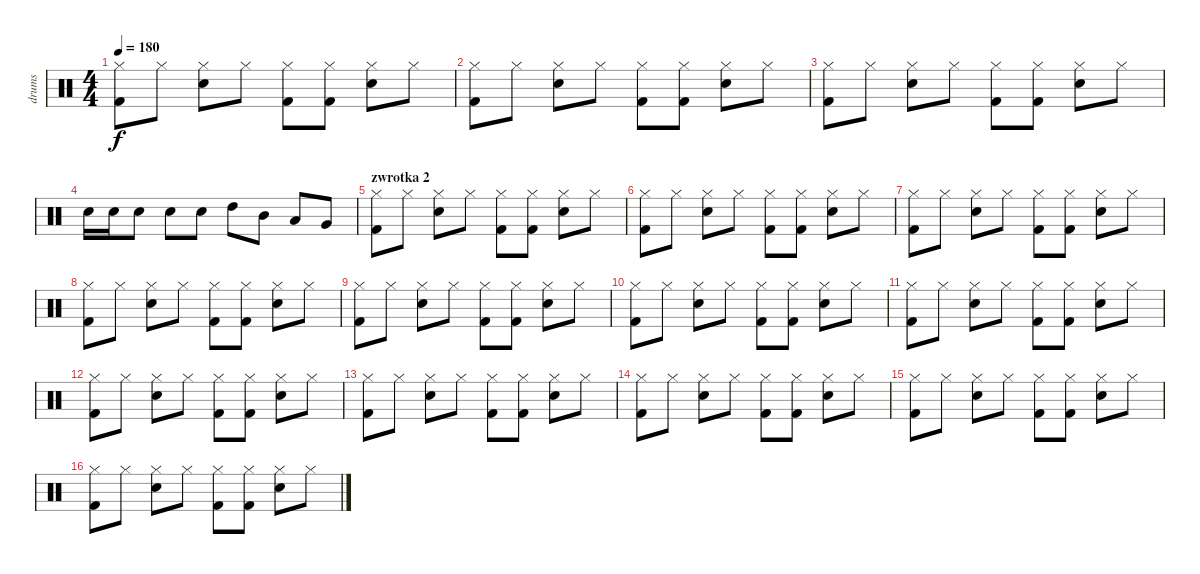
\track ("drums" "drums") {instrument percussion}
\staff {score}
\articulation defaults
\ts (4 4)
\tempo 180
\clef neutral
\ks c
("Hi-Hat (closed)" "Kick (hit) 2").8{dy f} "Hi-Hat (closed)".8 ("Hi-Hat (closed)" "Snare (hit) 2").8 "Hi-Hat (closed)".8 ("Hi-Hat (closed)" "Kick (hit) 2").8 ("Hi-Hat (closed)" "Kick (hit) 2").8 ("Hi-Hat (closed)" "Snare (hit) 2").8 "Hi-Hat (closed)".8 |
("Hi-Hat (closed)" "Kick (hit) 2").8 "Hi-Hat (closed)".8 ("Hi-Hat (closed)" "Snare (hit) 2").8 "Hi-Hat (closed)".8 ("Hi-Hat (closed)" "Kick (hit) 2").8 ("Hi-Hat (closed)" "Kick (hit) 2").8 ("Hi-Hat (closed)" "Snare (hit) 2").8 "Hi-Hat (closed)".8 |
("Hi-Hat (closed)" "Kick (hit) 2").8 "Hi-Hat (closed)".8 ("Hi-Hat (closed)" "Snare (hit) 2").8 "Hi-Hat (closed)".8 ("Hi-Hat (closed)" "Kick (hit) 2").8 ("Hi-Hat (closed)" "Kick (hit) 2").8 ("Hi-Hat (closed)" "Snare (hit) 2").8 "Hi-Hat (closed)".8 |
"Snare (hit) 2".16 "Snare (hit) 2".16 "Snare (hit) 2".8 "Snare (hit) 2".8 "Snare (hit) 2".8 "High Tom (hit)".8 "Mid Tom (hit)".8 "Low Tom (hit)".8 "Very Low Tom (hit)".8 |
\section ("" "zwrotka 2")
("Hi-Hat (closed)" "Kick (hit) 2").8 "Hi-Hat (closed)".8 ("Hi-Hat (closed)" "Snare (hit) 2").8 "Hi-Hat (closed)".8 ("Hi-Hat (closed)" "Kick (hit) 2").8 ("Hi-Hat (closed)" "Kick (hit) 2").8 ("Hi-Hat (closed)" "Snare (hit) 2").8 "Hi-Hat (closed)".8 |
("Hi-Hat (closed)" "Kick (hit) 2").8 "Hi-Hat (closed)".8 ("Hi-Hat (closed)" "Snare (hit) 2").8 "Hi-Hat (closed)".8 ("Hi-Hat (closed)" "Kick (hit) 2").8 ("Hi-Hat (closed)" "Kick (hit) 2").8 ("Hi-Hat (closed)" "Snare (hit) 2").8 "Hi-Hat (closed)".8 |
("Hi-Hat (closed)" "Kick (hit) 2").8 "Hi-Hat (closed)".8 ("Hi-Hat (closed)" "Snare (hit) 2").8 "Hi-Hat (closed)".8 ("Hi-Hat (closed)" "Kick (hit) 2").8 ("Hi-Hat (closed)" "Kick (hit) 2").8 ("Hi-Hat (closed)" "Snare (hit) 2").8 "Hi-Hat (closed)".8 |
("Hi-Hat (closed)" "Kick (hit) 2").8 "Hi-Hat (closed)".8 ("Hi-Hat (closed)" "Snare (hit) 2").8 "Hi-Hat (closed)".8 ("Hi-Hat (closed)" "Kick (hit) 2").8 ("Hi-Hat (closed)" "Kick (hit) 2").8 ("Hi-Hat (closed)" "Snare (hit) 2").8 "Hi-Hat (closed)".8 |
("Hi-Hat (closed)" "Kick (hit) 2").8 "Hi-Hat (closed)".8 ("Hi-Hat (closed)" "Snare (hit) 2").8 "Hi-Hat (closed)".8 ("Hi-Hat (closed)" "Kick (hit) 2").8 ("Hi-Hat (closed)" "Kick (hit) 2").8 ("Hi-Hat (closed)" "Snare (hit) 2").8 "Hi-Hat (closed)".8 |
("Hi-Hat (closed)" "Kick (hit) 2").8 "Hi-Hat (closed)".8 ("Hi-Hat (closed)" "Snare (hit) 2").8 "Hi-Hat (closed)".8 ("Hi-Hat (closed)" "Kick (hit) 2").8 ("Hi-Hat (closed)" "Kick (hit) 2").8 ("Hi-Hat (closed)" "Snare (hit) 2").8 "Hi-Hat (closed)".8 |
("Hi-Hat (closed)" "Kick (hit) 2").8 "Hi-Hat (closed)".8 ("Hi-Hat (closed)" "Snare (hit) 2").8 "Hi-Hat (closed)".8 ("Hi-Hat (closed)" "Kick (hit) 2").8 ("Hi-Hat (closed)" "Kick (hit) 2").8 ("Hi-Hat (closed)" "Snare (hit) 2").8 "Hi-Hat (closed)".8 |
("Hi-Hat (closed)" "Kick (hit) 2").8 "Hi-Hat (closed)".8 ("Hi-Hat (closed)" "Snare (hit) 2").8 "Hi-Hat (closed)".8 ("Hi-Hat (closed)" "Kick (hit) 2").8 ("Hi-Hat (closed)" "Kick (hit) 2").8 ("Hi-Hat (closed)" "Snare (hit) 2").8 "Hi-Hat (closed)".8 |
("Hi-Hat (closed)" "Kick (hit) 2").8 "Hi-Hat (closed)".8 ("Hi-Hat (closed)" "Snare (hit) 2").8 "Hi-Hat (closed)".8 ("Hi-Hat (closed)" "Kick (hit) 2").8 ("Hi-Hat (closed)" "Kick (hit) 2").8 ("Hi-Hat (closed)" "Snare (hit) 2").8 "Hi-Hat (closed)".8 |
("Hi-Hat (closed)" "Kick (hit) 2").8 "Hi-Hat (closed)".8 ("Hi-Hat (closed)" "Snare (hit) 2").8 "Hi-Hat (closed)".8 ("Hi-Hat (closed)" "Kick (hit) 2").8 ("Hi-Hat (closed)" "Kick (hit) 2").8 ("Hi-Hat (closed)" "Snare (hit) 2").8 "Hi-Hat (closed)".8 |
("Hi-Hat (closed)" "Kick (hit) 2").8 "Hi-Hat (closed)".8 ("Hi-Hat (closed)" "Snare (hit) 2").8 "Hi-Hat (closed)".8 ("Hi-Hat (closed)" "Kick (hit) 2").8 ("Hi-Hat (closed)" "Kick (hit) 2").8 ("Hi-Hat (closed)" "Snare (hit) 2").8 "Hi-Hat (closed)".8 |
("Hi-Hat (closed)" "Kick (hit) 2").8 "Hi-Hat (closed)".8 ("Hi-Hat (closed)" "Snare (hit) 2").8 "Hi-Hat (closed)".8 ("Hi-Hat (closed)" "Kick (hit) 2").8 ("Hi-Hat (closed)" "Kick (hit) 2").8 ("Hi-Hat (closed)" "Snare (hit) 2").8 "Hi-Hat (closed)".8
